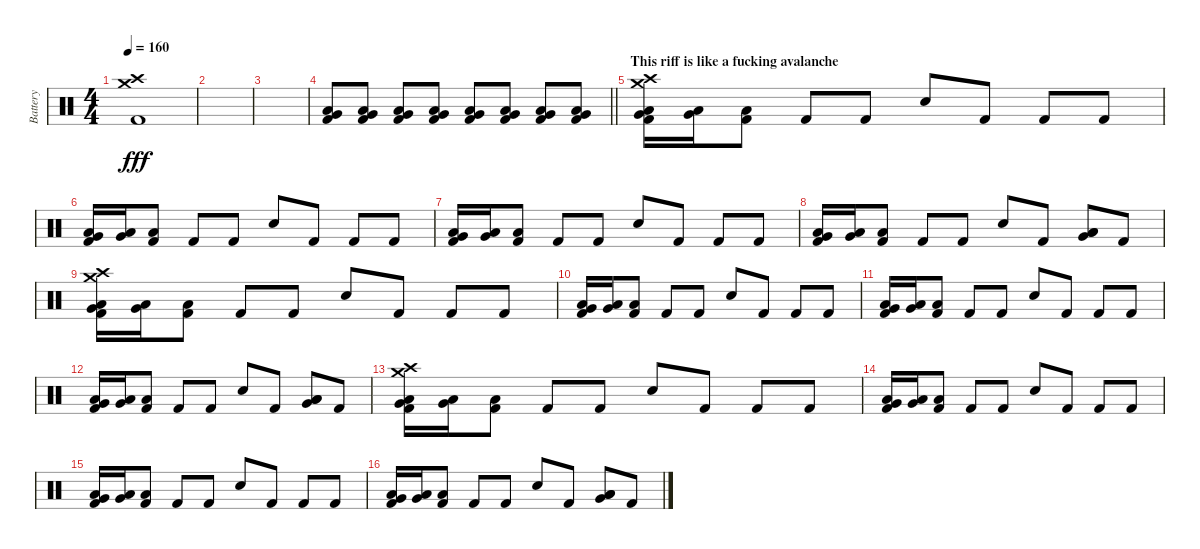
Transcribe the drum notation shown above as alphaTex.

\track ("Battery" "Battery") {instrument percussion}
\staff {score}
\articulation defaults
\ts (4 4)
\section ("" "")
\tempo 160
\clef neutral
\ks c
("Crash high (hit)" "Crash medium (hit)" "Kick (hit) 2").1{dy fff} |
|
|
\barLineRight lightlight
("Very Low Tom (hit)" "Low Floor Tom (hit)" "Kick (hit) 2").8{volume 16} ("Very Low Tom (hit)" "Low Floor Tom (hit)" "Kick (hit) 2").8 ("Very Low Tom (hit)" "Low Floor Tom (hit)" "Kick (hit) 2").8 ("Very Low Tom (hit)" "Low Floor Tom (hit)" "Kick (hit) 2").8 ("Very Low Tom (hit)" "Low Floor Tom (hit)" "Kick (hit) 2").8 ("Very Low Tom (hit)" "Low Floor Tom (hit)" "Kick (hit) 2").8 ("Very Low Tom (hit)" "Low Floor Tom (hit)" "Kick (hit) 2").8 ("Very Low Tom (hit)" "Low Floor Tom (hit)" "Kick (hit) 2").8 |
\section ("" "This riff is like a fucking avalanche")
("Crash high (hit)" "Crash medium (hit)" "Low Tom (hit)" "Very Low Tom (hit)" "Kick (hit) 2").16 ("Very Low Tom (hit)" "Low Floor Tom (hit)").16 ("Low Floor Tom (hit)" "Kick (hit) 2").8 "Kick (hit) 2".8 "Kick (hit) 2".8 "Snare (hit) 2".8 "Kick (hit) 2".8 "Kick (hit) 2".8 "Kick (hit) 2".8 |
("Low Tom (hit)" "Very Low Tom (hit)" "Kick (hit) 2").16 ("Very Low Tom (hit)" "Low Floor Tom (hit)").16 ("Low Floor Tom (hit)" "Kick (hit) 2").8 "Kick (hit) 2".8 "Kick (hit) 2".8 "Snare (hit) 2".8 "Kick (hit) 2".8 "Kick (hit) 2".8 "Kick (hit) 2".8 |
("Low Tom (hit)" "Very Low Tom (hit)" "Kick (hit) 2").16 ("Very Low Tom (hit)" "Low Floor Tom (hit)").16 ("Low Floor Tom (hit)" "Kick (hit) 2").8 "Kick (hit) 2".8 "Kick (hit) 2".8 "Snare (hit) 2".8 "Kick (hit) 2".8 "Kick (hit) 2".8 "Kick (hit) 2".8 |
("Low Tom (hit)" "Very Low Tom (hit)" "Kick (hit) 2").16 ("Very Low Tom (hit)" "Low Floor Tom (hit)").16 ("Low Floor Tom (hit)" "Kick (hit) 2").8 "Kick (hit) 2".8 "Kick (hit) 2".8 "Snare (hit) 2".8 "Kick (hit) 2".8 ("Low Tom (hit)" "Very Low Tom (hit)" "Low Floor Tom (hit)").8 "Kick (hit) 2".8 |
("Crash high (hit)" "Crash medium (hit)" "Low Tom (hit)" "Very Low Tom (hit)" "Kick (hit) 2").16 ("Very Low Tom (hit)" "Low Floor Tom (hit)").16 ("Low Floor Tom (hit)" "Kick (hit) 2").8 "Kick (hit) 2".8 "Kick (hit) 2".8 "Snare (hit) 2".8 "Kick (hit) 2".8 "Kick (hit) 2".8 "Kick (hit) 2".8 |
("Low Tom (hit)" "Very Low Tom (hit)" "Kick (hit) 2").16 ("Very Low Tom (hit)" "Low Floor Tom (hit)").16 ("Low Floor Tom (hit)" "Kick (hit) 2").8 "Kick (hit) 2".8 "Kick (hit) 2".8 "Snare (hit) 2".8 "Kick (hit) 2".8 "Kick (hit) 2".8 "Kick (hit) 2".8 |
("Low Tom (hit)" "Very Low Tom (hit)" "Kick (hit) 2").16 ("Very Low Tom (hit)" "Low Floor Tom (hit)").16 ("Low Floor Tom (hit)" "Kick (hit) 2").8 "Kick (hit) 2".8 "Kick (hit) 2".8 "Snare (hit) 2".8 "Kick (hit) 2".8 "Kick (hit) 2".8 "Kick (hit) 2".8 |
("Low Tom (hit)" "Very Low Tom (hit)" "Kick (hit) 2").16 ("Very Low Tom (hit)" "Low Floor Tom (hit)").16 ("Low Floor Tom (hit)" "Kick (hit) 2").8 "Kick (hit) 2".8 "Kick (hit) 2".8 "Snare (hit) 2".8 "Kick (hit) 2".8 ("Low Tom (hit)" "Very Low Tom (hit)" "Low Floor Tom (hit)").8 "Kick (hit) 2".8 |
("Crash high (hit)" "Crash medium (hit)" "Low Tom (hit)" "Very Low Tom (hit)" "Kick (hit) 2").16 ("Very Low Tom (hit)" "Low Floor Tom (hit)").16 ("Low Floor Tom (hit)" "Kick (hit) 2").8 "Kick (hit) 2".8 "Kick (hit) 2".8 "Snare (hit) 2".8 "Kick (hit) 2".8 "Kick (hit) 2".8 "Kick (hit) 2".8 |
("Low Tom (hit)" "Very Low Tom (hit)" "Kick (hit) 2").16 ("Very Low Tom (hit)" "Low Floor Tom (hit)").16 ("Low Floor Tom (hit)" "Kick (hit) 2").8 "Kick (hit) 2".8 "Kick (hit) 2".8 "Snare (hit) 2".8 "Kick (hit) 2".8 "Kick (hit) 2".8 "Kick (hit) 2".8 |
("Low Tom (hit)" "Very Low Tom (hit)" "Kick (hit) 2").16 ("Very Low Tom (hit)" "Low Floor Tom (hit)").16 ("Low Floor Tom (hit)" "Kick (hit) 2").8 "Kick (hit) 2".8 "Kick (hit) 2".8 "Snare (hit) 2".8 "Kick (hit) 2".8 "Kick (hit) 2".8 "Kick (hit) 2".8 |
("Low Tom (hit)" "Very Low Tom (hit)" "Kick (hit) 2").16 ("Very Low Tom (hit)" "Low Floor Tom (hit)").16 ("Low Floor Tom (hit)" "Kick (hit) 2").8 "Kick (hit) 2".8 "Kick (hit) 2".8 "Snare (hit) 2".8 "Kick (hit) 2".8 ("Low Tom (hit)" "Very Low Tom (hit)" "Low Floor Tom (hit)").8 "Kick (hit) 2".8
